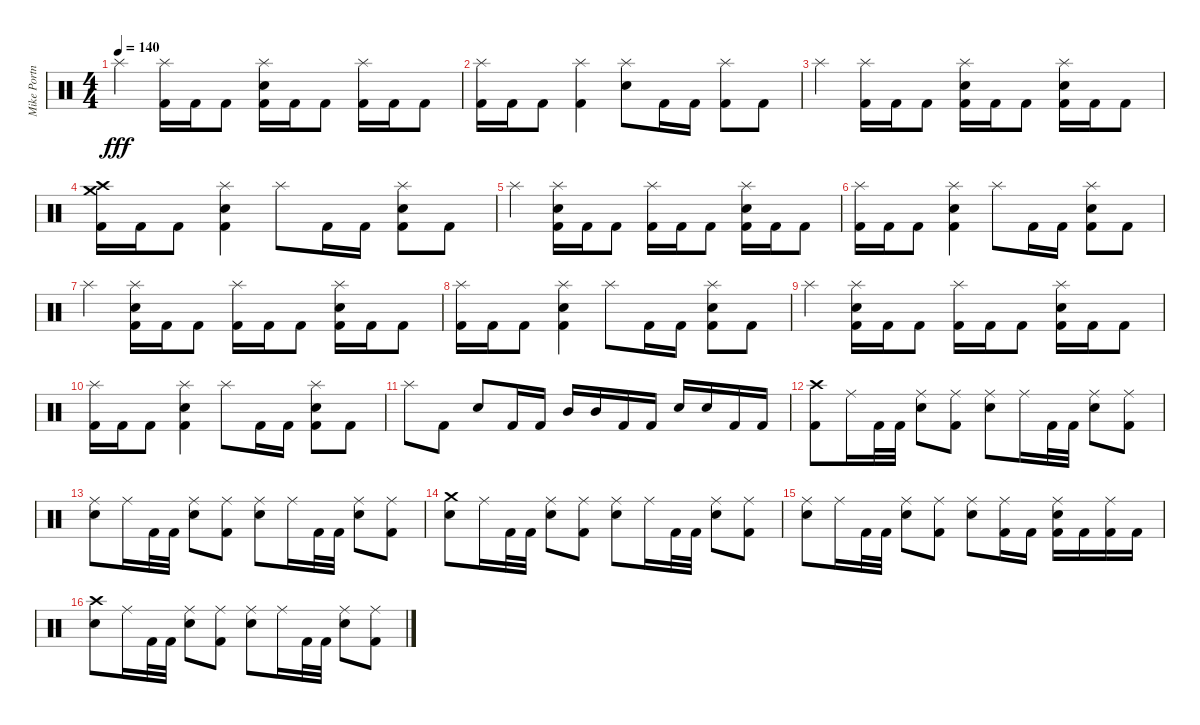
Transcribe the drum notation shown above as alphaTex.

\track ("Mike Portnoy - Drum" "Mike Portn") {instrument percussion}
\staff {score}
\articulation defaults
\ts (4 4)
\tempo 140
\clef neutral
\ks c "Splash (hit)".4{dy fff}
("Splash (hit)" "Kick (hit) 2").16 "Kick (hit) 2".16 "Kick (hit) 2".8 ("Splash (hit)" "Snare (hit) 2" "Kick (hit) 2").16 "Kick (hit) 2".16 "Kick (hit) 2".8 ("Splash (hit)" "Kick (hit) 2").16 "Kick (hit) 2".16 "Kick (hit) 2".8 |
("Splash (hit)" "Kick (hit) 2").16 "Kick (hit) 2".16 "Kick (hit) 2".8 ("Splash (hit)" "Kick (hit) 2").4 ("Splash (hit)" "Snare (hit) 2").8 "Kick (hit) 2".16 "Kick (hit) 2".16 ("Splash (hit)" "Kick (hit) 2").8 "Kick (hit) 2".8 |
"Splash (hit)".4 ("Splash (hit)" "Kick (hit) 2").16 "Kick (hit) 2".16 "Kick (hit) 2".8 ("Splash (hit)" "Snare (hit) 2" "Kick (hit) 2").16 "Kick (hit) 2".16 "Kick (hit) 2".8 ("Splash (hit)" "Snare (hit) 2" "Kick (hit) 2").16 "Kick (hit) 2".16 "Kick (hit) 2".8 |
("Crash high (hit)" "Crash medium (hit)" "Kick (hit) 2").16 "Kick (hit) 2".16 "Kick (hit) 2".8 ("Splash (hit)" "Snare (hit) 2" "Kick (hit) 2").4 "Splash (hit)".8 "Kick (hit) 2".16 "Kick (hit) 2".16 ("Splash (hit)" "Snare (hit) 2" "Kick (hit) 2").8 "Kick (hit) 2".8 |
"Splash (hit)".4 ("Splash (hit)" "Snare (hit) 2" "Kick (hit) 2").16 "Kick (hit) 2".16 "Kick (hit) 2".8 ("Splash (hit)" "Kick (hit) 2").16 "Kick (hit) 2".16 "Kick (hit) 2".8 ("Splash (hit)" "Snare (hit) 2" "Kick (hit) 2").16 "Kick (hit) 2".16 "Kick (hit) 2".8 |
("Splash (hit)" "Kick (hit) 2").16 "Kick (hit) 2".16 "Kick (hit) 2".8 ("Splash (hit)" "Snare (hit) 2" "Kick (hit) 2").4 "Splash (hit)".8 "Kick (hit) 2".16 "Kick (hit) 2".16 ("Splash (hit)" "Snare (hit) 2" "Kick (hit) 2").8 "Kick (hit) 2".8 |
"Splash (hit)".4 ("Splash (hit)" "Snare (hit) 2" "Kick (hit) 2").16 "Kick (hit) 2".16 "Kick (hit) 2".8 ("Splash (hit)" "Kick (hit) 2").16 "Kick (hit) 2".16 "Kick (hit) 2".8 ("Splash (hit)" "Snare (hit) 2" "Kick (hit) 2").16 "Kick (hit) 2".16 "Kick (hit) 2".8 |
("Splash (hit)" "Kick (hit) 2").16 "Kick (hit) 2".16 "Kick (hit) 2".8 ("Splash (hit)" "Snare (hit) 2" "Kick (hit) 2").4 "Splash (hit)".8 "Kick (hit) 2".16 "Kick (hit) 2".16 ("Splash (hit)" "Snare (hit) 2" "Kick (hit) 2").8 "Kick (hit) 2".8 |
"Splash (hit)".4 ("Splash (hit)" "Snare (hit) 2" "Kick (hit) 2").16 "Kick (hit) 2".16 "Kick (hit) 2".8 ("Splash (hit)" "Kick (hit) 2").16 "Kick (hit) 2".16 "Kick (hit) 2".8 ("Splash (hit)" "Snare (hit) 2" "Kick (hit) 2").16 "Kick (hit) 2".16 "Kick (hit) 2".8 |
("Splash (hit)" "Kick (hit) 2").16 "Kick (hit) 2".16 "Kick (hit) 2".8 ("Splash (hit)" "Snare (hit) 2" "Kick (hit) 2").4 "Splash (hit)".8 "Kick (hit) 2".16 "Kick (hit) 2".16 ("Splash (hit)" "Snare (hit) 2" "Kick (hit) 2").8 "Kick (hit) 2".8 |
"Splash (hit)".8 "Kick (hit) 2".8 "Snare (hit) 2".8 "Kick (hit) 2".16 "Kick (hit) 2".16 "Mid Tom (hit)".16 "Mid Tom (hit)".16 "Kick (hit) 2".16 "Kick (hit) 2".16 "Snare (hit) 2".16 "Snare (hit) 2".16 "Kick (hit) 2".16 "Kick (hit) 2".16 |
("Crash high (hit)" "Kick (hit) 2").8 "Ride (middle)".16 "Kick (hit) 2".32 "Kick (hit) 2".32 ("Ride (middle)" "Snare (hit) 2").8 ("Ride (middle)" "Kick (hit) 2").8 ("Ride (middle)" "Snare (hit) 2").8 "Ride (middle)".16 "Kick (hit) 2".32 "Kick (hit) 2".32 ("Ride (middle)" "Snare (hit) 2").8 ("Ride (middle)" "Kick (hit) 2").8 |
("Ride (middle)" "Snare (hit) 2").8 "Ride (middle)".16 "Kick (hit) 2".32 "Kick (hit) 2".32 ("Ride (middle)" "Snare (hit) 2").8 ("Ride (middle)" "Kick (hit) 2").8 ("Ride (middle)" "Snare (hit) 2").8 "Ride (middle)".16 "Kick (hit) 2".32 "Kick (hit) 2".32 ("Ride (middle)" "Snare (hit) 2").8 ("Ride (middle)" "Kick (hit) 2").8 |
("Crash medium (hit)" "Snare (hit) 2").8 "Ride (middle)".16 "Kick (hit) 2".32 "Kick (hit) 2".32 ("Ride (middle)" "Snare (hit) 2").8 ("Ride (middle)" "Kick (hit) 2").8 ("Ride (middle)" "Snare (hit) 2").8 "Ride (middle)".16 "Kick (hit) 2".32 "Kick (hit) 2".32 ("Ride (middle)" "Snare (hit) 2").8 ("Ride (middle)" "Kick (hit) 2").8 |
("Ride (middle)" "Snare (hit) 2").8 "Ride (middle)".16 "Kick (hit) 2".32 "Kick (hit) 2".32 ("Ride (middle)" "Snare (hit) 2").8 ("Ride (middle)" "Kick (hit) 2").8 ("Ride (middle)" "Snare (hit) 2").8 ("Ride (middle)" "Kick (hit) 2").16 "Kick (hit) 2".16 ("Ride (middle)" "Snare (hit) 2" "Kick (hit) 2").16 "Kick (hit) 2".16 ("Ride (middle)" "Kick (hit) 2").16 "Kick (hit) 2".16 |
("Crash high (hit)" "Snare (hit) 2").8 "Ride (middle)".16 "Kick (hit) 2".32 "Kick (hit) 2".32 ("Ride (middle)" "Snare (hit) 2").8 ("Ride (middle)" "Kick (hit) 2").8 ("Ride (middle)" "Snare (hit) 2").8 "Ride (middle)".16 "Kick (hit) 2".32 "Kick (hit) 2".32 ("Ride (middle)" "Snare (hit) 2").8 ("Ride (middle)" "Kick (hit) 2").8
